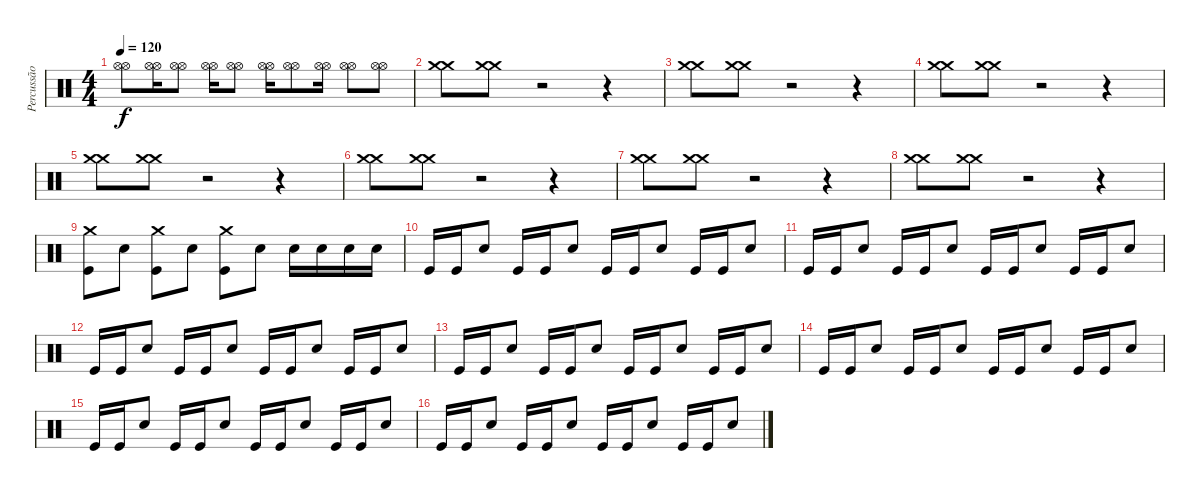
\track ("Percussão" "Percussão") {instrument percussion}
\staff {score}
\articulation defaults
\ts (4 4)
\tempo 120
\clef neutral
\ks c
("Hi-Hat (open)" "Hi-Hat (open)").8{dy f} ("Hi-Hat (open)" "Hi-Hat (open)").16 ("Hi-Hat (open)" "Hi-Hat (open)").8 ("Hi-Hat (open)" "Hi-Hat (open)").16 ("Hi-Hat (open)" "Hi-Hat (open)").8 ("Hi-Hat (open)" "Hi-Hat (open)").16 ("Hi-Hat (open)" "Hi-Hat (open)").8 ("Hi-Hat (open)" "Hi-Hat (open)").16 ("Hi-Hat (open)" "Hi-Hat (open)").8 ("Hi-Hat (open)" "Hi-Hat (open)").8 |
("Crash medium (hit)" "Crash medium (hit)").8 ("Crash medium (hit)" "Crash medium (hit)").8 r.2 r.4 |
("Crash medium (hit)" "Crash medium (hit)").8 ("Crash medium (hit)" "Crash medium (hit)").8 r.2 r.4 |
("Crash medium (hit)" "Crash medium (hit)").8 ("Crash medium (hit)" "Crash medium (hit)").8 r.2 r.4 |
("Crash medium (hit)" "Crash medium (hit)").8 ("Crash medium (hit)" "Crash medium (hit)").8 r.2 r.4 |
("Crash medium (hit)" "Crash medium (hit)").8 ("Crash medium (hit)" "Crash medium (hit)").8 r.2 r.4 |
("Crash medium (hit)" "Crash medium (hit)").8 ("Crash medium (hit)" "Crash medium (hit)").8 r.2 r.4 |
("Crash medium (hit)" "Crash medium (hit)").8 ("Crash medium (hit)" "Crash medium (hit)").8 r.2 r.4 |
("Crash medium (hit)" "Kick (hit)").8 "Snare (hit) 2".8 ("Crash medium (hit)" "Kick (hit)").8 "Snare (hit) 2".8 ("Crash medium (hit)" "Kick (hit)").8 "Snare (hit) 2".8 "Snare (hit) 2".16 "Snare (hit) 2".16 "Snare (hit) 2".16 "Snare (hit) 2".16 |
"Kick (hit)".16 "Kick (hit)".16 "Snare (hit) 2".8 "Kick (hit)".16 "Kick (hit)".16 "Snare (hit) 2".8 "Kick (hit)".16 "Kick (hit)".16 "Snare (hit) 2".8 "Kick (hit)".16 "Kick (hit)".16 "Snare (hit) 2".8 |
"Kick (hit)".16 "Kick (hit)".16 "Snare (hit) 2".8 "Kick (hit)".16 "Kick (hit)".16 "Snare (hit) 2".8 "Kick (hit)".16 "Kick (hit)".16 "Snare (hit) 2".8 "Kick (hit)".16 "Kick (hit)".16 "Snare (hit) 2".8 |
"Kick (hit)".16 "Kick (hit)".16 "Snare (hit) 2".8 "Kick (hit)".16 "Kick (hit)".16 "Snare (hit) 2".8 "Kick (hit)".16 "Kick (hit)".16 "Snare (hit) 2".8 "Kick (hit)".16 "Kick (hit)".16 "Snare (hit) 2".8 |
"Kick (hit)".16 "Kick (hit)".16 "Snare (hit) 2".8 "Kick (hit)".16 "Kick (hit)".16 "Snare (hit) 2".8 "Kick (hit)".16 "Kick (hit)".16 "Snare (hit) 2".8 "Kick (hit)".16 "Kick (hit)".16 "Snare (hit) 2".8 |
"Kick (hit)".16 "Kick (hit)".16 "Snare (hit) 2".8 "Kick (hit)".16 "Kick (hit)".16 "Snare (hit) 2".8 "Kick (hit)".16 "Kick (hit)".16 "Snare (hit) 2".8 "Kick (hit)".16 "Kick (hit)".16 "Snare (hit) 2".8 |
"Kick (hit)".16 "Kick (hit)".16 "Snare (hit) 2".8 "Kick (hit)".16 "Kick (hit)".16 "Snare (hit) 2".8 "Kick (hit)".16 "Kick (hit)".16 "Snare (hit) 2".8 "Kick (hit)".16 "Kick (hit)".16 "Snare (hit) 2".8 |
"Kick (hit)".16 "Kick (hit)".16 "Snare (hit) 2".8 "Kick (hit)".16 "Kick (hit)".16 "Snare (hit) 2".8 "Kick (hit)".16 "Kick (hit)".16 "Snare (hit) 2".8 "Kick (hit)".16 "Kick (hit)".16 "Snare (hit) 2".8
